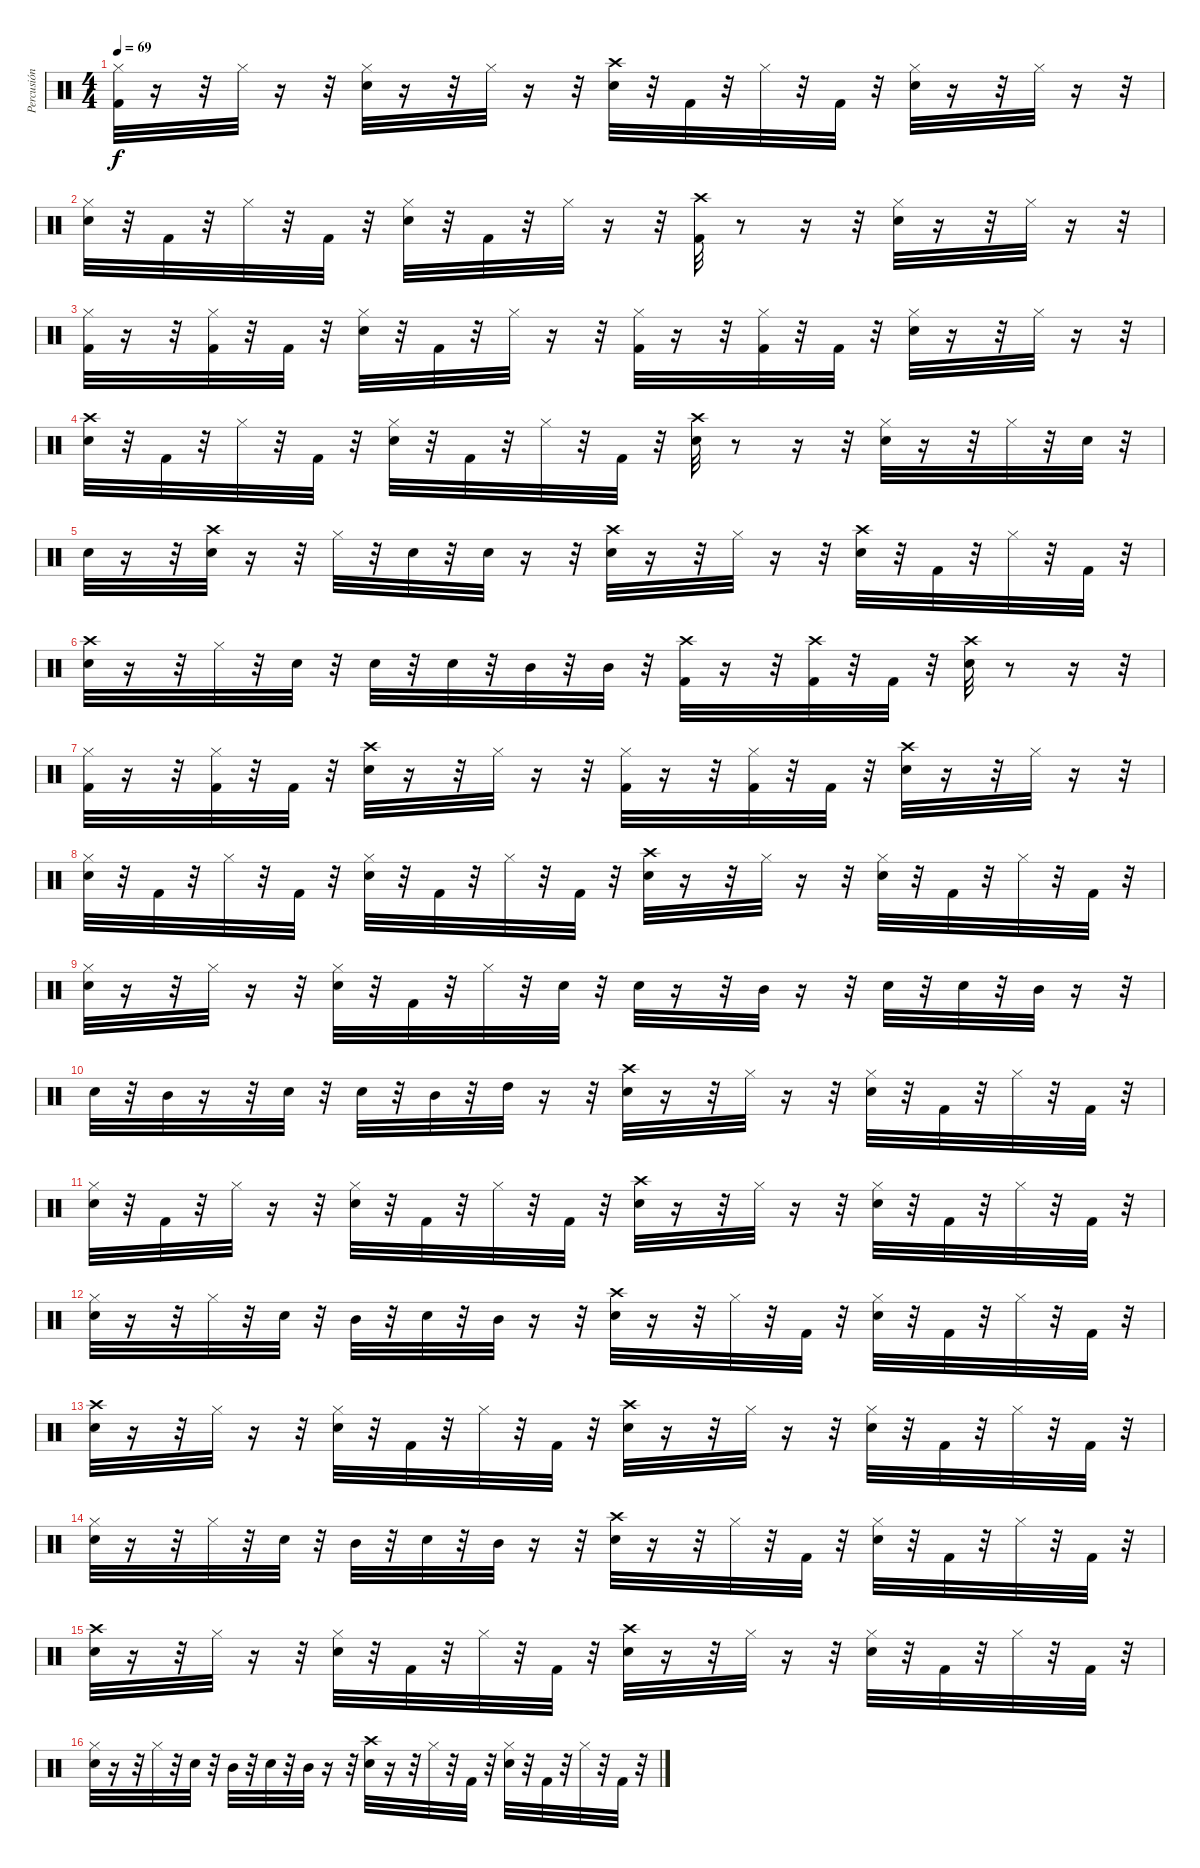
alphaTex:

\track ("Percusión" "Percusión") {instrument percussion}
\staff {score}
\articulation defaults
\ts (4 4)
\tempo 69
\clef neutral
\ks c
("Hi-Hat (closed)" "Kick (hit) 2").32{dy f} r.16 r.32 "Hi-Hat (closed)".32 r.16 r.32 ("Snare (hit) 2" "Hi-Hat (closed)").32 r.16 r.32 "Hi-Hat (closed)".32 r.16 r.32 ("Crash high (hit)" "Snare (hit) 2").32 r.32 "Kick (hit) 2".32 r.32 "Hi-Hat (closed)".32 r.32 "Kick (hit) 2".32 r.32 ("Snare (hit) 2" "Hi-Hat (closed)").32 r.16 r.32 "Hi-Hat (closed)".32 r.16 r.32 |
("Snare (hit) 2" "Hi-Hat (closed)").32 r.32 "Kick (hit) 2".32 r.32 "Hi-Hat (closed)".32 r.32 "Kick (hit) 2".32 r.32 ("Hi-Hat (closed)" "Snare (hit) 2").32 r.32 "Kick (hit) 2".32 r.32 "Hi-Hat (closed)".32 r.16 r.32 ("Crash high (hit)" "Kick (hit) 2").32 r.8 r.16 r.32 ("Hi-Hat (closed)" "Snare (hit) 2").32 r.16 r.32 "Hi-Hat (closed)".32 r.16 r.32 |
("Hi-Hat (closed)" "Kick (hit) 2").32 r.16 r.32 ("Hi-Hat (closed)" "Kick (hit) 2").32 r.32 "Kick (hit) 2".32 r.32 ("Snare (hit) 2" "Hi-Hat (closed)").32 r.32 "Kick (hit) 2".32 r.32 "Hi-Hat (closed)".32 r.16 r.32 ("Hi-Hat (closed)" "Kick (hit) 2").32 r.16 r.32 ("Hi-Hat (closed)" "Kick (hit) 2").32 r.32 "Kick (hit) 2".32 r.32 ("Snare (hit) 2" "Hi-Hat (closed)").32 r.16 r.32 "Hi-Hat (closed)".32 r.16 r.32 |
("Snare (hit) 2" "Crash high (hit)").32 r.32 "Kick (hit) 2".32 r.32 "Hi-Hat (closed)".32 r.32 "Kick (hit) 2".32 r.32 ("Snare (hit) 2" "Hi-Hat (closed)").32 r.32 "Kick (hit) 2".32 r.32 "Hi-Hat (closed)".32 r.32 "Kick (hit) 2".32 r.32 ("Crash high (hit)" "Snare (hit) 2").32 r.8 r.16 r.32 ("Hi-Hat (closed)" "Snare (hit) 2").32 r.16 r.32 "Hi-Hat (closed)".32 r.32 "Snare (hit) 2".32 r.32 |
"Snare (hit) 2".32 r.16 r.32 ("Crash high (hit)" "Snare (hit) 2").32 r.16 r.32 "Hi-Hat (closed)".32 r.32 "Snare (hit) 2".32 r.32 "Snare (hit) 2".32 r.16 r.32 ("Crash high (hit)" "Snare (hit) 2").32 r.16 r.32 "Hi-Hat (closed)".32 r.16 r.32 ("Crash high (hit)" "Snare (hit) 2").32 r.32 "Kick (hit) 2".32 r.32 "Hi-Hat (closed)".32 r.32 "Kick (hit) 2".32 r.32 |
("Crash high (hit)" "Snare (hit) 2").32 r.16 r.32 "Hi-Hat (closed)".32 r.32 "Snare (hit) 2".32 r.32 "Snare (hit) 2".32 r.32 "Snare (hit) 2".32 r.32 "Mid Tom (hit)".32 r.32 "Mid Tom (hit)".32 r.32 ("Crash high (hit)" "Kick (hit) 2").32 r.16 r.32 ("Crash high (hit)" "Kick (hit) 2").32 r.32 "Kick (hit) 2".32 r.32 ("Crash high (hit)" "Snare (hit) 2").32 r.8 r.16 r.32 |
("Hi-Hat (closed)" "Kick (hit) 2").32 r.16 r.32 ("Hi-Hat (closed)" "Kick (hit) 2").32 r.32 "Kick (hit) 2".32 r.32 ("Crash high (hit)" "Snare (hit) 2").32 r.16 r.32 "Hi-Hat (closed)".32 r.16 r.32 ("Hi-Hat (closed)" "Kick (hit) 2").32 r.16 r.32 ("Hi-Hat (closed)" "Kick (hit) 2").32 r.32 "Kick (hit) 2".32 r.32 ("Crash high (hit)" "Snare (hit) 2").32 r.16 r.32 "Hi-Hat (closed)".32 r.16 r.32 |
("Snare (hit) 2" "Hi-Hat (closed)").32 r.32 "Kick (hit) 2".32 r.32 "Hi-Hat (closed)".32 r.32 "Kick (hit) 2".32 r.32 ("Snare (hit) 2" "Hi-Hat (closed)").32 r.32 "Kick (hit) 2".32 r.32 "Hi-Hat (closed)".32 r.32 "Kick (hit) 2".32 r.32 ("Crash high (hit)" "Snare (hit) 2").32 r.16 r.32 "Hi-Hat (closed)".32 r.16 r.32 ("Snare (hit) 2" "Hi-Hat (closed)").32 r.32 "Kick (hit) 2".32 r.32 "Hi-Hat (closed)".32 r.32 "Kick (hit) 2".32 r.32 |
("Hi-Hat (closed)" "Snare (hit) 2").32 r.16 r.32 "Hi-Hat (closed)".32 r.16 r.32 ("Hi-Hat (closed)" "Snare (hit) 2").32 r.32 "Kick (hit) 2".32 r.32 "Hi-Hat (closed)".32 r.32 "Snare (hit) 2".32 r.32 "Snare (hit) 2".32 r.16 r.32 "Mid Tom (hit)".32 r.16 r.32 "Snare (hit) 2".32 r.32 "Snare (hit) 2".32 r.32 "Mid Tom (hit)".32 r.16 r.32 |
"Snare (hit) 2".32 r.32 "Mid Tom (hit)".32 r.16 r.32 "Snare (hit) 2".32 r.32 "Snare (hit) 2".32 r.32 "Mid Tom (hit)".32 r.32 "High Tom (hit)".32 r.16 r.32 ("Crash high (hit)" "Snare (hit) 2").32 r.16 r.32 "Hi-Hat (closed)".32 r.16 r.32 ("Snare (hit) 2" "Hi-Hat (closed)").32 r.32 "Kick (hit) 2".32 r.32 "Hi-Hat (closed)".32 r.32 "Kick (hit) 2".32 r.32 |
("Hi-Hat (closed)" "Snare (hit) 2").32 r.32 "Kick (hit) 2".32 r.32 "Hi-Hat (closed)".32 r.16 r.32 ("Snare (hit) 2" "Hi-Hat (closed)").32 r.32 "Kick (hit) 2".32 r.32 "Hi-Hat (closed)".32 r.32 "Kick (hit) 2".32 r.32 ("Crash high (hit)" "Snare (hit) 2").32 r.16 r.32 "Hi-Hat (closed)".32 r.16 r.32 ("Snare (hit) 2" "Hi-Hat (closed)").32 r.32 "Kick (hit) 2".32 r.32 "Hi-Hat (closed)".32 r.32 "Kick (hit) 2".32 r.32 |
("Hi-Hat (closed)" "Snare (hit) 2").32 r.16 r.32 "Hi-Hat (closed)".32 r.32 "Snare (hit) 2".32 r.32 "Mid Tom (hit)".32 r.32 "Snare (hit) 2".32 r.32 "Mid Tom (hit)".32 r.16 r.32 ("Crash high (hit)" "Snare (hit) 2").32 r.16 r.32 "Hi-Hat (closed)".32 r.32 "Kick (hit) 2".32 r.32 ("Snare (hit) 2" "Hi-Hat (closed)").32 r.32 "Kick (hit) 2".32 r.32 "Hi-Hat (closed)".32 r.32 "Kick (hit) 2".32 r.32 |
("Crash high (hit)" "Snare (hit) 2").32 r.16 r.32 "Hi-Hat (closed)".32 r.16 r.32 ("Snare (hit) 2" "Hi-Hat (closed)").32 r.32 "Kick (hit) 2".32 r.32 "Hi-Hat (closed)".32 r.32 "Kick (hit) 2".32 r.32 ("Crash high (hit)" "Snare (hit) 2").32 r.16 r.32 "Hi-Hat (closed)".32 r.16 r.32 ("Snare (hit) 2" "Hi-Hat (closed)").32 r.32 "Kick (hit) 2".32 r.32 "Hi-Hat (closed)".32 r.32 "Kick (hit) 2".32 r.32 |
("Hi-Hat (closed)" "Snare (hit) 2").32 r.16 r.32 "Hi-Hat (closed)".32 r.32 "Snare (hit) 2".32 r.32 "Mid Tom (hit)".32 r.32 "Snare (hit) 2".32 r.32 "Mid Tom (hit)".32 r.16 r.32 ("Crash high (hit)" "Snare (hit) 2").32 r.16 r.32 "Hi-Hat (closed)".32 r.32 "Kick (hit) 2".32 r.32 ("Snare (hit) 2" "Hi-Hat (closed)").32 r.32 "Kick (hit) 2".32 r.32 "Hi-Hat (closed)".32 r.32 "Kick (hit) 2".32 r.32 |
("Crash high (hit)" "Snare (hit) 2").32 r.16 r.32 "Hi-Hat (closed)".32 r.16 r.32 ("Snare (hit) 2" "Hi-Hat (closed)").32 r.32 "Kick (hit) 2".32 r.32 "Hi-Hat (closed)".32 r.32 "Kick (hit) 2".32 r.32 ("Crash high (hit)" "Snare (hit) 2").32 r.16 r.32 "Hi-Hat (closed)".32 r.16 r.32 ("Snare (hit) 2" "Hi-Hat (closed)").32 r.32 "Kick (hit) 2".32 r.32 "Hi-Hat (closed)".32 r.32 "Kick (hit) 2".32 r.32 |
("Hi-Hat (closed)" "Snare (hit) 2").32 r.16 r.32 "Hi-Hat (closed)".32 r.32 "Snare (hit) 2".32 r.32 "Mid Tom (hit)".32 r.32 "Snare (hit) 2".32 r.32 "Mid Tom (hit)".32 r.16 r.32 ("Crash high (hit)" "Snare (hit) 2").32 r.16 r.32 "Hi-Hat (closed)".32 r.32 "Kick (hit) 2".32 r.32 ("Snare (hit) 2" "Hi-Hat (closed)").32 r.32 "Kick (hit) 2".32 r.32 "Hi-Hat (closed)".32 r.32 "Kick (hit) 2".32 r.32
